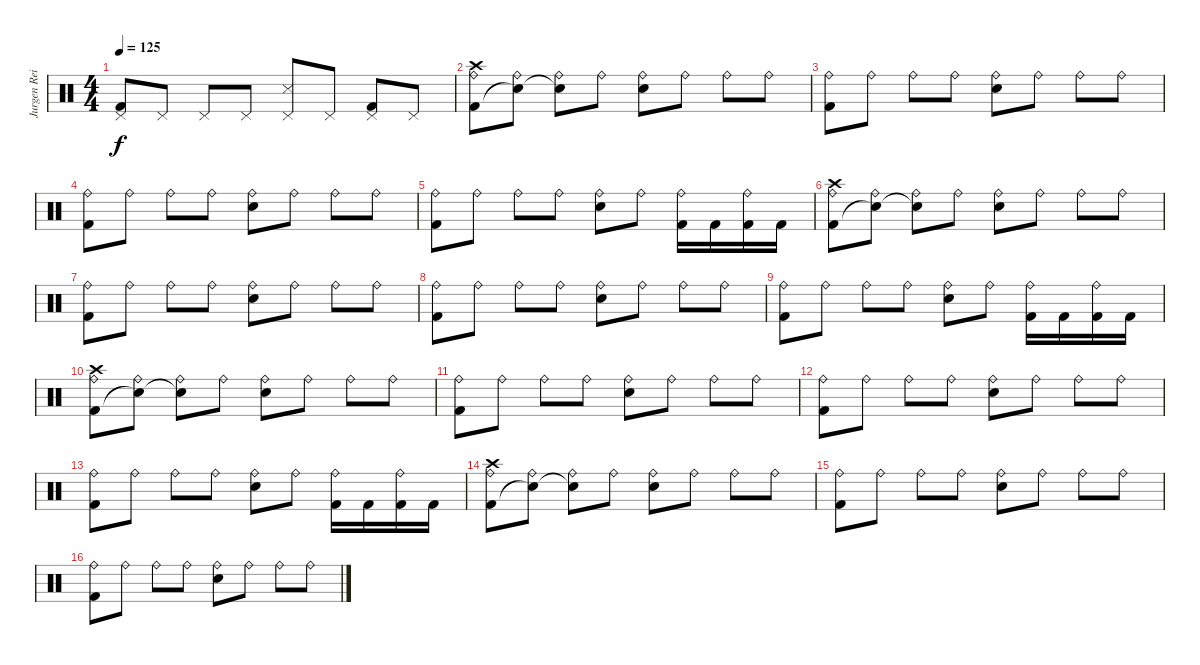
\track ("Jurgen Reil" "Jurgen Rei") {instrument percussion}
\staff {score}
\articulation defaults
\ts (4 4)
\tempo 125
\clef neutral
\ks c
("Pedal Hi-Hat (hit)" "Kick (hit) 2").8{dy f} "Pedal Hi-Hat (hit)".8 "Pedal Hi-Hat (hit)".8 "Pedal Hi-Hat (hit)".8 ("Pedal Hi-Hat (hit)" "Snare (side stick) 3").8 "Pedal Hi-Hat (hit)".8 ("Pedal Hi-Hat (hit)" "Kick (hit) 2").8 "Pedal Hi-Hat (hit)".8 |
("Ride (bell)" "Kick (hit) 2" "Crash high (hit)").8 ("Ride (bell)" "Snare (hit)"{t}).8 ("Ride (bell)" "Snare (hit)"{t}).8 "Ride (bell)".8 ("Ride (bell)" "Snare (hit) 2").8 "Ride (bell)".8 "Ride (bell)".8 "Ride (bell)".8 |
("Ride (bell)" "Kick (hit) 2").8 "Ride (bell)".8 "Ride (bell)".8 "Ride (bell)".8 ("Ride (bell)" "Snare (hit) 2").8 "Ride (bell)".8 "Ride (bell)".8 "Ride (bell)".8 |
("Ride (bell)" "Kick (hit) 2").8 "Ride (bell)".8 "Ride (bell)".8 "Ride (bell)".8 ("Ride (bell)" "Snare (hit) 2").8 "Ride (bell)".8 "Ride (bell)".8 "Ride (bell)".8 |
("Ride (bell)" "Kick (hit) 2").8 "Ride (bell)".8 "Ride (bell)".8 "Ride (bell)".8 ("Ride (bell)" "Snare (hit) 2").8 "Ride (bell)".8 ("Ride (bell)" "Kick (hit) 2").16 "Kick (hit) 2".16 ("Ride (bell)" "Kick (hit) 2").16 "Kick (hit) 2".16 |
("Ride (bell)" "Kick (hit) 2" "Crash high (hit)").8 ("Ride (bell)" "Snare (hit)"{t}).8 ("Ride (bell)" "Snare (hit)"{t}).8 "Ride (bell)".8 ("Ride (bell)" "Snare (hit) 2").8 "Ride (bell)".8 "Ride (bell)".8 "Ride (bell)".8 |
("Ride (bell)" "Kick (hit) 2").8 "Ride (bell)".8 "Ride (bell)".8 "Ride (bell)".8 ("Ride (bell)" "Snare (hit) 2").8 "Ride (bell)".8 "Ride (bell)".8 "Ride (bell)".8 |
("Ride (bell)" "Kick (hit) 2").8 "Ride (bell)".8 "Ride (bell)".8 "Ride (bell)".8 ("Ride (bell)" "Snare (hit) 2").8 "Ride (bell)".8 "Ride (bell)".8 "Ride (bell)".8 |
("Ride (bell)" "Kick (hit) 2").8 "Ride (bell)".8 "Ride (bell)".8 "Ride (bell)".8 ("Ride (bell)" "Snare (hit) 2").8 "Ride (bell)".8 ("Ride (bell)" "Kick (hit) 2").16 "Kick (hit) 2".16 ("Ride (bell)" "Kick (hit) 2").16 "Kick (hit) 2".16 |
("Ride (bell)" "Kick (hit) 2" "Crash high (hit)").8 ("Ride (bell)" "Snare (hit)"{t}).8 ("Ride (bell)" "Snare (hit)"{t}).8 "Ride (bell)".8 ("Ride (bell)" "Snare (hit) 2").8 "Ride (bell)".8 "Ride (bell)".8 "Ride (bell)".8 |
("Ride (bell)" "Kick (hit) 2").8 "Ride (bell)".8 "Ride (bell)".8 "Ride (bell)".8 ("Ride (bell)" "Snare (hit) 2").8 "Ride (bell)".8 "Ride (bell)".8 "Ride (bell)".8 |
("Ride (bell)" "Kick (hit) 2").8 "Ride (bell)".8 "Ride (bell)".8 "Ride (bell)".8 ("Ride (bell)" "Snare (hit) 2").8 "Ride (bell)".8 "Ride (bell)".8 "Ride (bell)".8 |
("Ride (bell)" "Kick (hit) 2").8 "Ride (bell)".8 "Ride (bell)".8 "Ride (bell)".8 ("Ride (bell)" "Snare (hit) 2").8 "Ride (bell)".8 ("Ride (bell)" "Kick (hit) 2").16 "Kick (hit) 2".16 ("Ride (bell)" "Kick (hit) 2").16 "Kick (hit) 2".16 |
("Ride (bell)" "Kick (hit) 2" "Crash high (hit)").8 ("Ride (bell)" "Snare (hit)"{t}).8 ("Ride (bell)" "Snare (hit)"{t}).8 "Ride (bell)".8 ("Ride (bell)" "Snare (hit) 2").8 "Ride (bell)".8 "Ride (bell)".8 "Ride (bell)".8 |
("Ride (bell)" "Kick (hit) 2").8 "Ride (bell)".8 "Ride (bell)".8 "Ride (bell)".8 ("Ride (bell)" "Snare (hit) 2").8 "Ride (bell)".8 "Ride (bell)".8 "Ride (bell)".8 |
("Ride (bell)" "Kick (hit) 2").8 "Ride (bell)".8 "Ride (bell)".8 "Ride (bell)".8 ("Ride (bell)" "Snare (hit) 2").8 "Ride (bell)".8 "Ride (bell)".8 "Ride (bell)".8
